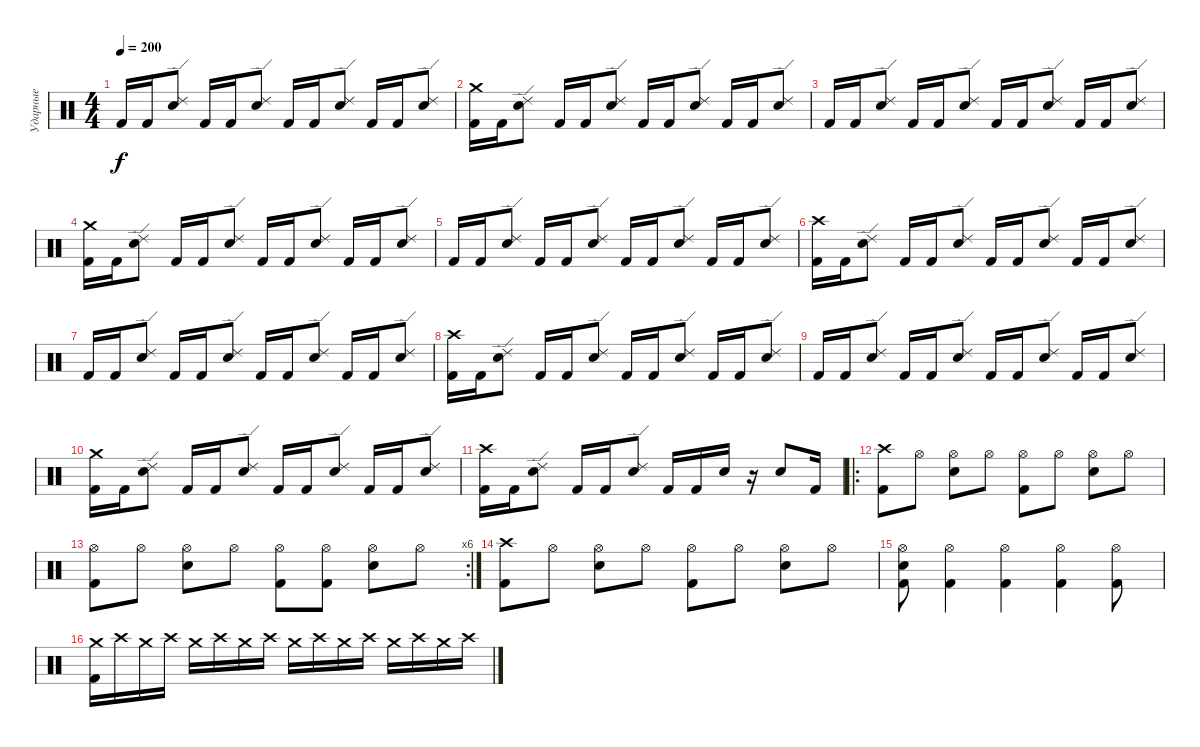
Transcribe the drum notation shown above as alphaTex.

\track ("Ударные" "Ударные") {instrument percussion}
\staff {score}
\articulation defaults
\ts (4 4)
\tempo 200
\clef neutral
\ks c "Kick (hit) 2".16{dy f} "Kick (hit) 2".16
("Ride (edge) 2" "Electric Snare (hit)").8 "Kick (hit) 2".16 "Kick (hit) 2".16 ("Ride (edge) 2" "Electric Snare (hit)").8 "Kick (hit) 2".16 "Kick (hit) 2".16 ("Ride (edge) 2" "Electric Snare (hit)").8 "Kick (hit) 2".16 "Kick (hit) 2".16 ("Ride (edge) 2" "Electric Snare (hit)").8 |
("Crash medium (hit)" "Kick (hit) 2").16 "Kick (hit) 2".16 ("Ride (edge) 2" "Electric Snare (hit)").8 "Kick (hit) 2".16 "Kick (hit) 2".16 ("Ride (edge) 2" "Electric Snare (hit)").8 "Kick (hit) 2".16 "Kick (hit) 2".16 ("Ride (edge) 2" "Electric Snare (hit)").8 "Kick (hit) 2".16 "Kick (hit) 2".16 ("Ride (edge) 2" "Electric Snare (hit)").8 |
"Kick (hit) 2".16 "Kick (hit) 2".16 ("Ride (edge) 2" "Electric Snare (hit)").8 "Kick (hit) 2".16 "Kick (hit) 2".16 ("Ride (edge) 2" "Electric Snare (hit)").8 "Kick (hit) 2".16 "Kick (hit) 2".16 ("Ride (edge) 2" "Electric Snare (hit)").8 "Kick (hit) 2".16 "Kick (hit) 2".16 ("Ride (edge) 2" "Electric Snare (hit)").8 |
("Crash medium (hit)" "Kick (hit) 2").16 "Kick (hit) 2".16 ("Ride (edge) 2" "Electric Snare (hit)").8 "Kick (hit) 2".16 "Kick (hit) 2".16 ("Ride (edge) 2" "Electric Snare (hit)").8 "Kick (hit) 2".16 "Kick (hit) 2".16 ("Ride (edge) 2" "Electric Snare (hit)").8 "Kick (hit) 2".16 "Kick (hit) 2".16 ("Ride (edge) 2" "Electric Snare (hit)").8 |
"Kick (hit) 2".16 "Kick (hit) 2".16 ("Ride (edge) 2" "Electric Snare (hit)").8 "Kick (hit) 2".16 "Kick (hit) 2".16 ("Ride (edge) 2" "Electric Snare (hit)").8 "Kick (hit) 2".16 "Kick (hit) 2".16 ("Ride (edge) 2" "Electric Snare (hit)").8 "Kick (hit) 2".16 "Kick (hit) 2".16 ("Ride (edge) 2" "Electric Snare (hit)").8 |
("Crash high (hit)" "Kick (hit) 2").16 "Kick (hit) 2".16 ("Ride (edge) 2" "Electric Snare (hit)").8 "Kick (hit) 2".16 "Kick (hit) 2".16 ("Ride (edge) 2" "Electric Snare (hit)").8 "Kick (hit) 2".16 "Kick (hit) 2".16 ("Ride (edge) 2" "Electric Snare (hit)").8 "Kick (hit) 2".16 "Kick (hit) 2".16 ("Ride (edge) 2" "Electric Snare (hit)").8 |
"Kick (hit) 2".16 "Kick (hit) 2".16 ("Ride (edge) 2" "Electric Snare (hit)").8 "Kick (hit) 2".16 "Kick (hit) 2".16 ("Ride (edge) 2" "Electric Snare (hit)").8 "Kick (hit) 2".16 "Kick (hit) 2".16 ("Ride (edge) 2" "Electric Snare (hit)").8 "Kick (hit) 2".16 "Kick (hit) 2".16 ("Ride (edge) 2" "Electric Snare (hit)").8 |
("Crash high (hit)" "Kick (hit) 2").16 "Kick (hit) 2".16 ("Ride (edge) 2" "Electric Snare (hit)").8 "Kick (hit) 2".16 "Kick (hit) 2".16 ("Ride (edge) 2" "Electric Snare (hit)").8 "Kick (hit) 2".16 "Kick (hit) 2".16 ("Ride (edge) 2" "Electric Snare (hit)").8 "Kick (hit) 2".16 "Kick (hit) 2".16 ("Ride (edge) 2" "Electric Snare (hit)").8 |
"Kick (hit) 2".16 "Kick (hit) 2".16 ("Ride (edge) 2" "Electric Snare (hit)").8 "Kick (hit) 2".16 "Kick (hit) 2".16 ("Ride (edge) 2" "Electric Snare (hit)").8 "Kick (hit) 2".16 "Kick (hit) 2".16 ("Ride (edge) 2" "Electric Snare (hit)").8 "Kick (hit) 2".16 "Kick (hit) 2".16 ("Ride (edge) 2" "Electric Snare (hit)").8 |
("Crash medium (hit)" "Kick (hit) 2").16 "Kick (hit) 2".16 ("Ride (edge) 2" "Electric Snare (hit)").8 "Kick (hit) 2".16 "Kick (hit) 2".16 ("Ride (edge) 2" "Electric Snare (hit)").8 "Kick (hit) 2".16 "Kick (hit) 2".16 ("Ride (edge) 2" "Electric Snare (hit)").8 "Kick (hit) 2".16 "Kick (hit) 2".16 ("Ride (edge) 2" "Electric Snare (hit)").8 |
("Crash high (hit)" "Kick (hit) 2").16 "Kick (hit) 2".16 ("Ride (edge) 2" "Electric Snare (hit)").8 "Kick (hit) 2".16 "Kick (hit) 2".16 ("Ride (edge) 2" "Electric Snare (hit)").8 "Kick (hit) 2".16 "Kick (hit) 2".16 "Electric Snare (hit)".16 r.16 "Electric Snare (hit)".8 "Kick (hit) 2".16 |
\ro
("Crash high (hit)" "Kick (hit) 2").8 "Hi-Hat (open)".8 ("Hi-Hat (open)" "Electric Snare (hit)").8 "Hi-Hat (open)".8 ("Hi-Hat (open)" "Kick (hit) 2").8 "Hi-Hat (open)".8 ("Hi-Hat (open)" "Electric Snare (hit)").8 "Hi-Hat (open)".8 |
\rc 6
("Hi-Hat (open)" "Kick (hit) 2").8 "Hi-Hat (open)".8 ("Hi-Hat (open)" "Electric Snare (hit)").8 "Hi-Hat (open)".8 ("Hi-Hat (open)" "Kick (hit) 2").8 ("Hi-Hat (open)" "Kick (hit) 2").8 ("Hi-Hat (open)" "Electric Snare (hit)").8 "Hi-Hat (open)".8 |
("Crash high (hit)" "Kick (hit) 2").8 "Hi-Hat (open)".8 ("Hi-Hat (open)" "Electric Snare (hit)").8 "Hi-Hat (open)".8 ("Hi-Hat (open)" "Kick (hit) 2").8 "Hi-Hat (open)".8 ("Hi-Hat (open)" "Electric Snare (hit)").8 "Hi-Hat (open)".8 |
("Hi-Hat (open)" "Electric Snare (hit)" "Kick (hit) 2").8 ("Hi-Hat (open)" "Kick (hit) 2").4 ("Hi-Hat (open)" "Kick (hit) 2").4 ("Hi-Hat (open)" "Kick (hit) 2").4 ("Hi-Hat (open)" "Kick (hit) 2").8 |
("Crash medium (hit)" "Kick (hit) 2").16 "Crash high (hit)".16 "Crash medium (hit)".16 "Crash high (hit)".16 "Crash medium (hit)".16 "Crash high (hit)".16 "Crash medium (hit)".16 "Crash high (hit)".16 "Crash medium (hit)".16 "Crash high (hit)".16 "Crash medium (hit)".16 "Crash high (hit)".16 "Crash medium (hit)".16 "Crash high (hit)".16 "Crash medium (hit)".16 "Crash high (hit)".16
